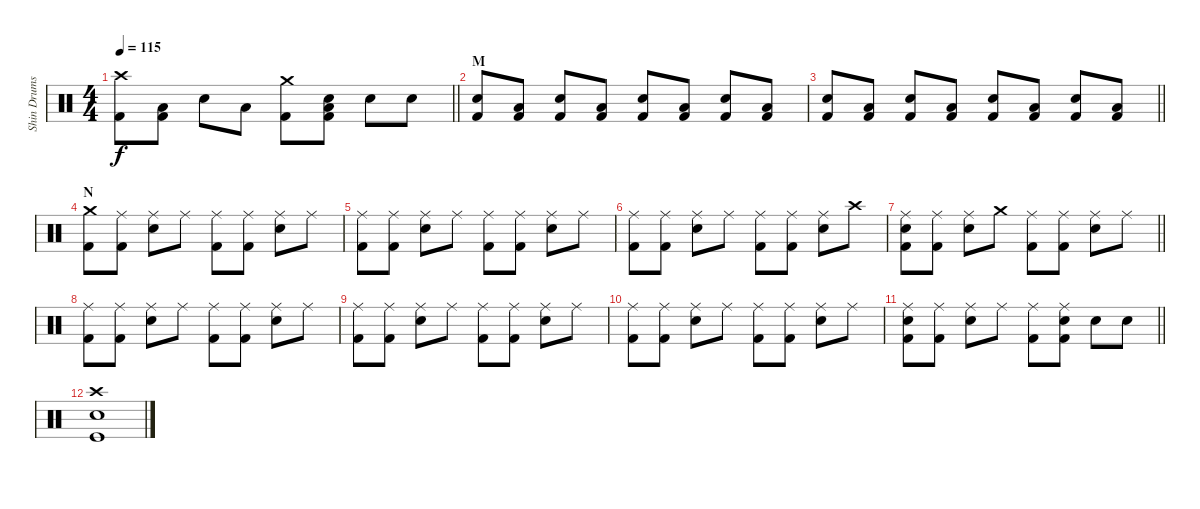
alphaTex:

\track ("Shin Drums" "Shin Drums") {instrument percussion}
\staff {score}
\articulation defaults
\ts (4 4)
\tempo 115
\clef neutral
\barLineRight lightlight
\ks c
("Crash high (hit)" "Kick (hit) 2").8{dy f} ("Low Floor Tom (hit)" "Kick (hit) 2").8 "Snare (hit) 2".8 "Low Floor Tom (hit)".8 ("Crash medium (hit)" "Kick (hit) 2").8 ("Low Floor Tom (hit)" "Snare (hit) 2" "Kick (hit) 2").8 "Snare (hit) 2".8 "Snare (hit) 2".8 |
\section ("" "M")
("Snare (hit) 2" "Kick (hit) 2").8 ("Low Floor Tom (hit)" "Kick (hit) 2").8 ("Snare (hit) 2" "Kick (hit) 2").8 ("Low Floor Tom (hit)" "Kick (hit) 2").8 ("Snare (hit) 2" "Kick (hit) 2").8 ("Low Floor Tom (hit)" "Kick (hit) 2").8 ("Snare (hit) 2" "Kick (hit) 2").8 ("Low Floor Tom (hit)" "Kick (hit) 2").8 |
\barLineRight lightlight
("Snare (hit) 2" "Kick (hit) 2").8 ("Low Floor Tom (hit)" "Kick (hit) 2").8 ("Snare (hit) 2" "Kick (hit) 2").8 ("Low Floor Tom (hit)" "Kick (hit) 2").8 ("Snare (hit) 2" "Kick (hit) 2").8 ("Low Floor Tom (hit)" "Kick (hit) 2").8 ("Snare (hit) 2" "Kick (hit) 2").8 ("Low Floor Tom (hit)" "Kick (hit) 2").8 |
\section ("" "N")
("Crash medium (hit)" "Kick (hit) 2").8 ("Ride (middle)" "Kick (hit) 2").8 ("Ride (middle)" "Snare (hit) 2").8 "Ride (middle)".8 ("Ride (middle)" "Kick (hit) 2").8 ("Ride (middle)" "Kick (hit) 2").8 ("Ride (middle)" "Snare (hit) 2").8 "Ride (middle)".8 |
("Ride (middle)" "Kick (hit) 2").8 ("Ride (middle)" "Kick (hit) 2").8 ("Ride (middle)" "Snare (hit) 2").8 "Ride (middle)".8 ("Ride (middle)" "Kick (hit) 2").8 ("Ride (middle)" "Kick (hit) 2").8 ("Ride (middle)" "Snare (hit) 2").8 "Ride (middle)".8 |
("Ride (middle)" "Kick (hit) 2").8 ("Ride (middle)" "Kick (hit) 2").8 ("Ride (middle)" "Snare (hit) 2").8 "Ride (middle)".8 ("Ride (middle)" "Kick (hit) 2").8 ("Ride (middle)" "Kick (hit) 2").8 ("Ride (middle)" "Snare (hit) 2").8 "Crash high (hit)".8 |
\barLineRight lightlight
("Ride (middle)" "Snare (hit) 2" "Kick (hit) 2").8 ("Ride (middle)" "Kick (hit) 2").8 ("Ride (middle)" "Snare (hit) 2").8 "Crash medium (hit)".8 ("Ride (middle)" "Kick (hit) 2").8 ("Ride (middle)" "Kick (hit) 2").8 ("Ride (middle)" "Snare (hit) 2").8 "Ride (middle)".8 |
("Ride (middle)" "Kick (hit) 2").8 ("Ride (middle)" "Kick (hit) 2").8 ("Ride (middle)" "Snare (hit) 2").8 "Ride (middle)".8 ("Ride (middle)" "Kick (hit) 2").8 ("Ride (middle)" "Kick (hit) 2").8 ("Ride (middle)" "Snare (hit) 2").8 "Ride (middle)".8 |
("Ride (middle)" "Kick (hit) 2").8 ("Ride (middle)" "Kick (hit) 2").8 ("Ride (middle)" "Snare (hit) 2").8 "Ride (middle)".8 ("Ride (middle)" "Kick (hit) 2").8 ("Ride (middle)" "Kick (hit) 2").8 ("Ride (middle)" "Snare (hit) 2").8 "Ride (middle)".8 |
("Ride (middle)" "Kick (hit) 2").8 ("Ride (middle)" "Kick (hit) 2").8 ("Ride (middle)" "Snare (hit) 2").8 "Ride (middle)".8 ("Ride (middle)" "Kick (hit) 2").8 ("Ride (middle)" "Kick (hit) 2").8 ("Ride (middle)" "Snare (hit) 2").8 "Ride (middle)".8 |
\barLineRight lightlight
("Ride (middle)" "Snare (hit) 2" "Kick (hit) 2").8 ("Ride (middle)" "Kick (hit) 2").8 ("Ride (middle)" "Snare (hit) 2").8 "Ride (middle)".8 ("Ride (middle)" "Kick (hit) 2").8 ("Ride (middle)" "Snare (hit) 2" "Kick (hit) 2").8 "Snare (hit) 2".8 "Snare (hit) 2".8 |
("Crash high (hit)" "Snare (hit) 2" "Kick (hit)").1
